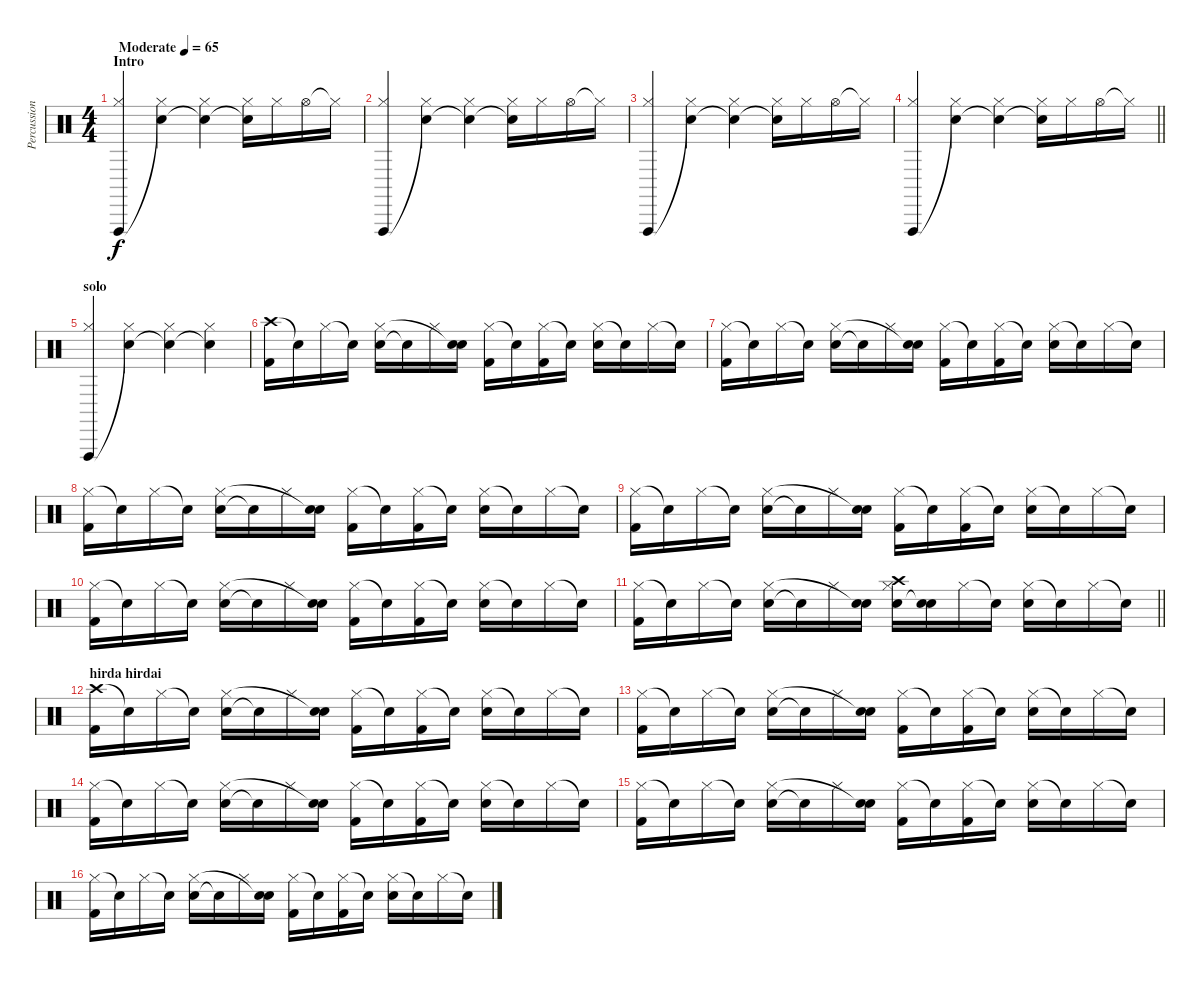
\track ("Percussion" "Percussion") {instrument percussion}
\staff {score}
\articulation defaults
\ts (4 4)
\section ("" "Intro")
\tempo (65 "Moderate")
\clef neutral
\ks c
("Vibraslap (hit)" "Hi-Hat (closed)").4{dy f} ("Snare (hit)"{t} "Hi-Hat (closed)").4 ("Snare (hit)"{t} "Hi-Hat (closed)").4 ("Snare (hit)"{t} "Hi-Hat (closed)").16 "Hi-Hat (closed)".16 "Hi-Hat (open)".16 "Hi-Hat (closed)"{t}.16 |
("Vibraslap (hit)" "Hi-Hat (closed)").4 ("Snare (hit)"{t} "Hi-Hat (closed)").4 ("Snare (hit)"{t} "Hi-Hat (closed)").4 ("Snare (hit)"{t} "Hi-Hat (closed)").16 "Hi-Hat (closed)".16 "Hi-Hat (open)".16 "Hi-Hat (closed)"{t}.16 |
("Vibraslap (hit)" "Hi-Hat (closed)").4 ("Snare (hit)"{t} "Hi-Hat (closed)").4 ("Snare (hit)"{t} "Hi-Hat (closed)").4 ("Snare (hit)"{t} "Hi-Hat (closed)").16 "Hi-Hat (closed)".16 "Hi-Hat (open)".16 "Hi-Hat (closed)"{t}.16 |
\barLineRight lightlight
("Vibraslap (hit)" "Hi-Hat (closed)").4 ("Snare (hit)"{t} "Hi-Hat (closed)").4 ("Snare (hit)"{t} "Hi-Hat (closed)").4 ("Snare (hit)"{t} "Hi-Hat (closed)").16 "Hi-Hat (closed)".16 "Hi-Hat (open)".16 "Hi-Hat (closed)"{t}.16 |
\section ("" "solo")
("Vibraslap (hit)" "Hi-Hat (closed)").4 ("Snare (hit)"{t} "Hi-Hat (closed)").4 ("Snare (hit)"{t} "Hi-Hat (closed)").4 ("Snare (hit)"{t} "Hi-Hat (closed)").4 |
("Crash high (hit)" "Kick (hit) 2").16 "Snare (hit)"{t}.16 "Hi-Hat (closed)".16 "Snare (hit)"{t}.16 ("Electric Snare (hit)" "Hi-Hat (closed)").16 "Snare (hit)"{t}.16 "Hi-Hat (closed)".16 ("Electric Snare (hit)" "Snare (hit)"{t}).16 ("Hi-Hat (closed)" "Kick (hit) 2").16 "Snare (hit)"{t}.16 ("Hi-Hat (closed)" "Kick (hit) 2").16 "Snare (hit)"{t}.16 ("Hi-Hat (closed)" "Electric Snare (hit)").16 "Snare (hit)"{t}.16 "Hi-Hat (closed)".16 "Snare (hit)"{t}.16 |
("Hi-Hat (closed)" "Kick (hit) 2").16 "Snare (hit)"{t}.16 "Hi-Hat (closed)".16 "Snare (hit)"{t}.16 ("Electric Snare (hit)" "Hi-Hat (closed)").16 "Snare (hit)"{t}.16 "Hi-Hat (closed)".16 ("Electric Snare (hit)" "Snare (hit)"{t}).16 ("Hi-Hat (closed)" "Kick (hit) 2").16 "Snare (hit)"{t}.16 ("Hi-Hat (closed)" "Kick (hit) 2").16 "Snare (hit)"{t}.16 ("Hi-Hat (closed)" "Electric Snare (hit)").16 "Snare (hit)"{t}.16 "Hi-Hat (closed)".16 "Snare (hit)"{t}.16 |
("Hi-Hat (closed)" "Kick (hit) 2").16 "Snare (hit)"{t}.16 "Hi-Hat (closed)".16 "Snare (hit)"{t}.16 ("Electric Snare (hit)" "Hi-Hat (closed)").16 "Snare (hit)"{t}.16 "Hi-Hat (closed)".16 ("Electric Snare (hit)" "Snare (hit)"{t}).16 ("Hi-Hat (closed)" "Kick (hit) 2").16 "Snare (hit)"{t}.16 ("Hi-Hat (closed)" "Kick (hit) 2").16 "Snare (hit)"{t}.16 ("Hi-Hat (closed)" "Electric Snare (hit)").16 "Snare (hit)"{t}.16 "Hi-Hat (closed)".16 "Snare (hit)"{t}.16 |
("Hi-Hat (closed)" "Kick (hit) 2").16 "Snare (hit)"{t}.16 "Hi-Hat (closed)".16 "Snare (hit)"{t}.16 ("Electric Snare (hit)" "Hi-Hat (closed)").16 "Snare (hit)"{t}.16 "Hi-Hat (closed)".16 ("Electric Snare (hit)" "Snare (hit)"{t}).16 ("Hi-Hat (closed)" "Kick (hit) 2").16 "Snare (hit)"{t}.16 ("Hi-Hat (closed)" "Kick (hit) 2").16 "Snare (hit)"{t}.16 ("Hi-Hat (closed)" "Electric Snare (hit)").16 "Snare (hit)"{t}.16 "Hi-Hat (closed)".16 "Snare (hit)"{t}.16 |
("Hi-Hat (closed)" "Kick (hit) 2").16 "Snare (hit)"{t}.16 "Hi-Hat (closed)".16 "Snare (hit)"{t}.16 ("Electric Snare (hit)" "Hi-Hat (closed)").16 "Snare (hit)"{t}.16 "Hi-Hat (closed)".16 ("Electric Snare (hit)" "Snare (hit)"{t}).16 ("Hi-Hat (closed)" "Kick (hit) 2").16 "Snare (hit)"{t}.16 ("Hi-Hat (closed)" "Kick (hit) 2").16 "Snare (hit)"{t}.16 ("Hi-Hat (closed)" "Electric Snare (hit)").16 "Snare (hit)"{t}.16 "Hi-Hat (closed)".16 "Snare (hit)"{t}.16 |
\barLineRight lightlight
("Hi-Hat (closed)" "Kick (hit) 2").16 "Snare (hit)"{t}.16 "Hi-Hat (closed)".16 "Snare (hit)"{t}.16 ("Electric Snare (hit)" "Hi-Hat (closed)").16 "Snare (hit)"{t}.16 "Hi-Hat (closed)".16 ("Electric Snare (hit)" "Snare (hit)"{t}).16 ("Crash high (hit)" "Electric Snare (hit)" "Hi-Hat (closed)").16 ("Electric Snare (hit)" "Snare (hit)"{t}).16 "Hi-Hat (closed)".16 "Snare (hit)"{t}.16 ("Hi-Hat (closed)" "Electric Snare (hit)").16 "Snare (hit)"{t}.16 "Hi-Hat (closed)".16 "Snare (hit)"{t}.16 |
\section ("" "hirda hirdai")
("Crash high (hit)" "Kick (hit) 2").16 "Snare (hit)"{t}.16 "Hi-Hat (closed)".16 "Snare (hit)"{t}.16 ("Electric Snare (hit)" "Hi-Hat (closed)").16 "Snare (hit)"{t}.16 "Hi-Hat (closed)".16 ("Electric Snare (hit)" "Snare (hit)"{t}).16 ("Hi-Hat (closed)" "Kick (hit) 2").16 "Snare (hit)"{t}.16 ("Hi-Hat (closed)" "Kick (hit) 2").16 "Snare (hit)"{t}.16 ("Hi-Hat (closed)" "Electric Snare (hit)").16 "Snare (hit)"{t}.16 "Hi-Hat (closed)".16 "Snare (hit)"{t}.16 |
("Hi-Hat (closed)" "Kick (hit) 2").16 "Snare (hit)"{t}.16 "Hi-Hat (closed)".16 "Snare (hit)"{t}.16 ("Electric Snare (hit)" "Hi-Hat (closed)").16 "Snare (hit)"{t}.16 "Hi-Hat (closed)".16 ("Electric Snare (hit)" "Snare (hit)"{t}).16 ("Hi-Hat (closed)" "Kick (hit) 2").16 "Snare (hit)"{t}.16 ("Hi-Hat (closed)" "Kick (hit) 2").16 "Snare (hit)"{t}.16 ("Hi-Hat (closed)" "Electric Snare (hit)").16 "Snare (hit)"{t}.16 "Hi-Hat (closed)".16 "Snare (hit)"{t}.16 |
("Hi-Hat (closed)" "Kick (hit) 2").16 "Snare (hit)"{t}.16 "Hi-Hat (closed)".16 "Snare (hit)"{t}.16 ("Electric Snare (hit)" "Hi-Hat (closed)").16 "Snare (hit)"{t}.16 "Hi-Hat (closed)".16 ("Electric Snare (hit)" "Snare (hit)"{t}).16 ("Hi-Hat (closed)" "Kick (hit) 2").16 "Snare (hit)"{t}.16 ("Hi-Hat (closed)" "Kick (hit) 2").16 "Snare (hit)"{t}.16 ("Hi-Hat (closed)" "Electric Snare (hit)").16 "Snare (hit)"{t}.16 "Hi-Hat (closed)".16 "Snare (hit)"{t}.16 |
("Hi-Hat (closed)" "Kick (hit) 2").16 "Snare (hit)"{t}.16 "Hi-Hat (closed)".16 "Snare (hit)"{t}.16 ("Electric Snare (hit)" "Hi-Hat (closed)").16 "Snare (hit)"{t}.16 "Hi-Hat (closed)".16 ("Electric Snare (hit)" "Snare (hit)"{t}).16 ("Hi-Hat (closed)" "Kick (hit) 2").16 "Snare (hit)"{t}.16 ("Hi-Hat (closed)" "Kick (hit) 2").16 "Snare (hit)"{t}.16 ("Hi-Hat (closed)" "Electric Snare (hit)").16 "Snare (hit)"{t}.16 "Hi-Hat (closed)".16 "Snare (hit)"{t}.16 |
("Hi-Hat (closed)" "Kick (hit) 2").16 "Snare (hit)"{t}.16 "Hi-Hat (closed)".16 "Snare (hit)"{t}.16 ("Electric Snare (hit)" "Hi-Hat (closed)").16 "Snare (hit)"{t}.16 "Hi-Hat (closed)".16 ("Electric Snare (hit)" "Snare (hit)"{t}).16 ("Hi-Hat (closed)" "Kick (hit) 2").16 "Snare (hit)"{t}.16 ("Hi-Hat (closed)" "Kick (hit) 2").16 "Snare (hit)"{t}.16 ("Hi-Hat (closed)" "Electric Snare (hit)").16 "Snare (hit)"{t}.16 "Hi-Hat (closed)".16 "Snare (hit)"{t}.16
